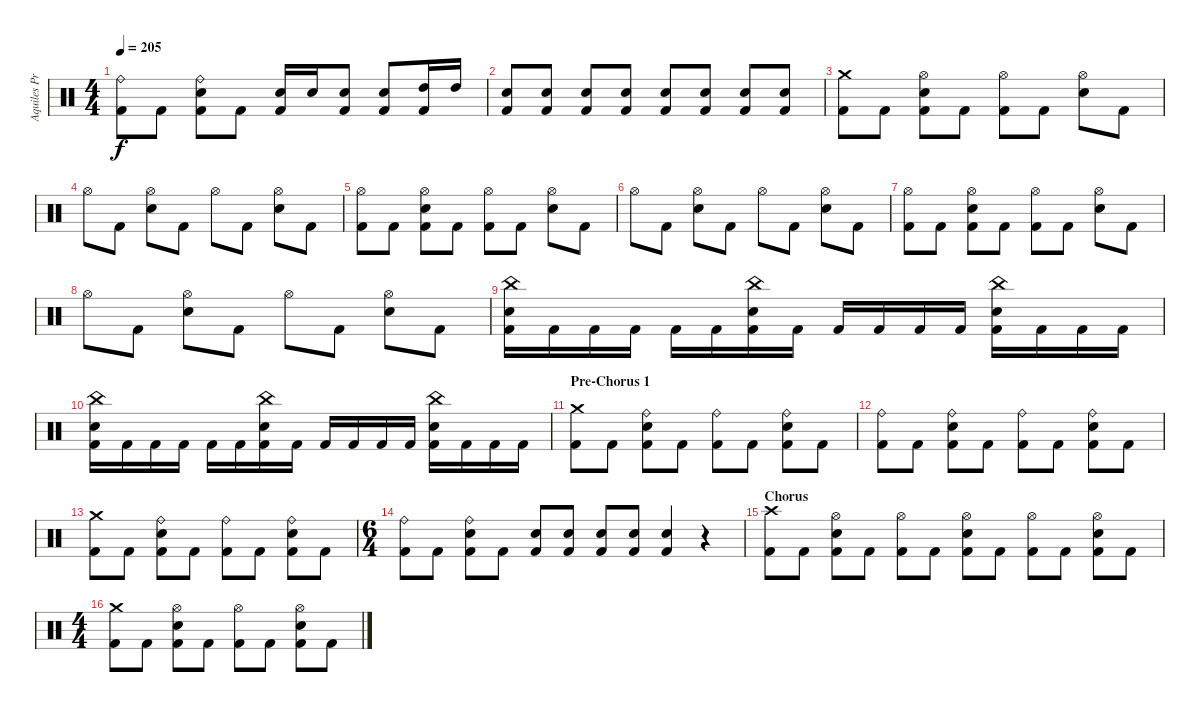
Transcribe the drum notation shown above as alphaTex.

\track ("Aquiles Priester" "Aquiles Pr") {instrument percussion}
\staff {score}
\articulation defaults
\ts (4 4)
\tempo 205
\clef neutral
\ks c
("Ride (bell)" "Kick (hit) 2").8{dy f} "Kick (hit) 2".8 ("Ride (bell)" "Electric Snare (hit)" "Kick (hit) 2").8 "Kick (hit) 2".8 ("Electric Snare (hit)" "Kick (hit) 2").16 "Electric Snare (hit)".16 ("Electric Snare (hit)" "Kick (hit) 2").8 ("Electric Snare (hit)" "Kick (hit) 2").8 ("High Tom (hit)" "Kick (hit) 2").16 "High Tom (hit)".16 |
("Electric Snare (hit)" "Kick (hit) 2").8 ("Electric Snare (hit)" "Kick (hit) 2").8 ("Electric Snare (hit)" "Kick (hit) 2").8 ("Electric Snare (hit)" "Kick (hit) 2").8 ("Electric Snare (hit)" "Kick (hit) 2").8 ("Electric Snare (hit)" "Kick (hit) 2").8 ("Electric Snare (hit)" "Kick (hit) 2").8 ("Electric Snare (hit)" "Kick (hit) 2").8 |
("Crash medium (hit)" "Kick (hit) 2").8 "Kick (hit) 2".8 ("Hi-Hat (open)" "Electric Snare (hit)" "Kick (hit) 2").8 "Kick (hit) 2".8 ("Hi-Hat (open)" "Kick (hit) 2").8 "Kick (hit) 2".8 ("Hi-Hat (open)" "Electric Snare (hit)").8 "Kick (hit) 2".8 |
"Hi-Hat (open)".8 "Kick (hit) 2".8 ("Hi-Hat (open)" "Electric Snare (hit)").8 "Kick (hit) 2".8 "Hi-Hat (open)".8 "Kick (hit) 2".8 ("Hi-Hat (open)" "Electric Snare (hit)").8 "Kick (hit) 2".8 |
("Hi-Hat (open)" "Kick (hit) 2").8 "Kick (hit) 2".8 ("Hi-Hat (open)" "Electric Snare (hit)" "Kick (hit) 2").8 "Kick (hit) 2".8 ("Hi-Hat (open)" "Kick (hit) 2").8 "Kick (hit) 2".8 ("Hi-Hat (open)" "Electric Snare (hit)").8 "Kick (hit) 2".8 |
"Hi-Hat (open)".8 "Kick (hit) 2".8 ("Hi-Hat (open)" "Electric Snare (hit)").8 "Kick (hit) 2".8 "Hi-Hat (open)".8 "Kick (hit) 2".8 ("Hi-Hat (open)" "Electric Snare (hit)").8 "Kick (hit) 2".8 |
("Hi-Hat (open)" "Kick (hit) 2").8 "Kick (hit) 2".8 ("Hi-Hat (open)" "Electric Snare (hit)" "Kick (hit) 2").8 "Kick (hit) 2".8 ("Hi-Hat (open)" "Kick (hit) 2").8 "Kick (hit) 2".8 ("Hi-Hat (open)" "Electric Snare (hit)").8 "Kick (hit) 2".8 |
"Hi-Hat (open)".8 "Kick (hit) 2".8 ("Hi-Hat (open)" "Electric Snare (hit)").8 "Kick (hit) 2".8 "Hi-Hat (open)".8 "Kick (hit) 2".8 ("Hi-Hat (open)" "Electric Snare (hit)").8 "Kick (hit) 2".8 |
("China (hit)" "Electric Snare (hit)" "Kick (hit) 2").16 "Kick (hit) 2".16 "Kick (hit) 2".16 "Kick (hit) 2".16 "Kick (hit) 2".16 "Kick (hit) 2".16 ("China (hit)" "Electric Snare (hit)" "Kick (hit) 2").16 "Kick (hit) 2".16 "Kick (hit) 2".16 "Kick (hit) 2".16 "Kick (hit) 2".16 "Kick (hit) 2".16 ("China (hit)" "Electric Snare (hit)" "Kick (hit) 2").16 "Kick (hit) 2".16 "Kick (hit) 2".16 "Kick (hit) 2".16 |
("China (hit)" "Electric Snare (hit)" "Kick (hit) 2").16 "Kick (hit) 2".16 "Kick (hit) 2".16 "Kick (hit) 2".16 "Kick (hit) 2".16 "Kick (hit) 2".16 ("China (hit)" "Electric Snare (hit)" "Kick (hit) 2").16 "Kick (hit) 2".16 "Kick (hit) 2".16 "Kick (hit) 2".16 "Kick (hit) 2".16 "Kick (hit) 2".16 ("China (hit)" "Electric Snare (hit)" "Kick (hit) 2").16 "Kick (hit) 2".16 "Kick (hit) 2".16 "Kick (hit) 2".16 |
\section ("" "Pre-Chorus 1")
("Crash medium (hit)" "Kick (hit) 2").8 "Kick (hit) 2".8 ("Ride (bell)" "Electric Snare (hit)" "Kick (hit) 2").8 "Kick (hit) 2".8 ("Ride (bell)" "Kick (hit) 2").8 "Kick (hit) 2".8 ("Ride (bell)" "Electric Snare (hit)" "Kick (hit) 2").8 "Kick (hit) 2".8 |
("Ride (bell)" "Kick (hit) 2").8 "Kick (hit) 2".8 ("Ride (bell)" "Electric Snare (hit)" "Kick (hit) 2").8 "Kick (hit) 2".8 ("Ride (bell)" "Kick (hit) 2").8 "Kick (hit) 2".8 ("Ride (bell)" "Electric Snare (hit)" "Kick (hit) 2").8 "Kick (hit) 2".8 |
("Crash medium (hit)" "Kick (hit) 2").8 "Kick (hit) 2".8 ("Ride (bell)" "Electric Snare (hit)" "Kick (hit) 2").8 "Kick (hit) 2".8 ("Ride (bell)" "Kick (hit) 2").8 "Kick (hit) 2".8 ("Ride (bell)" "Electric Snare (hit)" "Kick (hit) 2").8 "Kick (hit) 2".8 |
\ts (6 4)
("Ride (bell)" "Kick (hit) 2").8 "Kick (hit) 2".8 ("Ride (bell)" "Electric Snare (hit)" "Kick (hit) 2").8 "Kick (hit) 2".8 ("Electric Snare (hit)" "Kick (hit) 2").8 ("Electric Snare (hit)" "Kick (hit) 2").8 ("Electric Snare (hit)" "Kick (hit) 2").8 ("Electric Snare (hit)" "Kick (hit) 2").8 ("Electric Snare (hit)" "Kick (hit) 2").4 r.4 |
\section ("" "Chorus")
("Crash high (hit)" "Kick (hit) 2").8 "Kick (hit) 2".8 ("Hi-Hat (open)" "Electric Snare (hit)" "Kick (hit) 2").8 "Kick (hit) 2".8 ("Hi-Hat (open)" "Kick (hit) 2").8 "Kick (hit) 2".8 ("Hi-Hat (open)" "Electric Snare (hit)" "Kick (hit) 2").8 "Kick (hit) 2".8 ("Hi-Hat (open)" "Kick (hit) 2").8 "Kick (hit) 2".8 ("Hi-Hat (open)" "Electric Snare (hit)" "Kick (hit) 2").8 "Kick (hit) 2".8 |
\ts (4 4)
("Crash medium (hit)" "Kick (hit) 2").8 "Kick (hit) 2".8 ("Hi-Hat (open)" "Electric Snare (hit)" "Kick (hit) 2").8 "Kick (hit) 2".8 ("Hi-Hat (open)" "Kick (hit) 2").8 "Kick (hit) 2".8 ("Hi-Hat (open)" "Electric Snare (hit)" "Kick (hit) 2").8 "Kick (hit) 2".8
